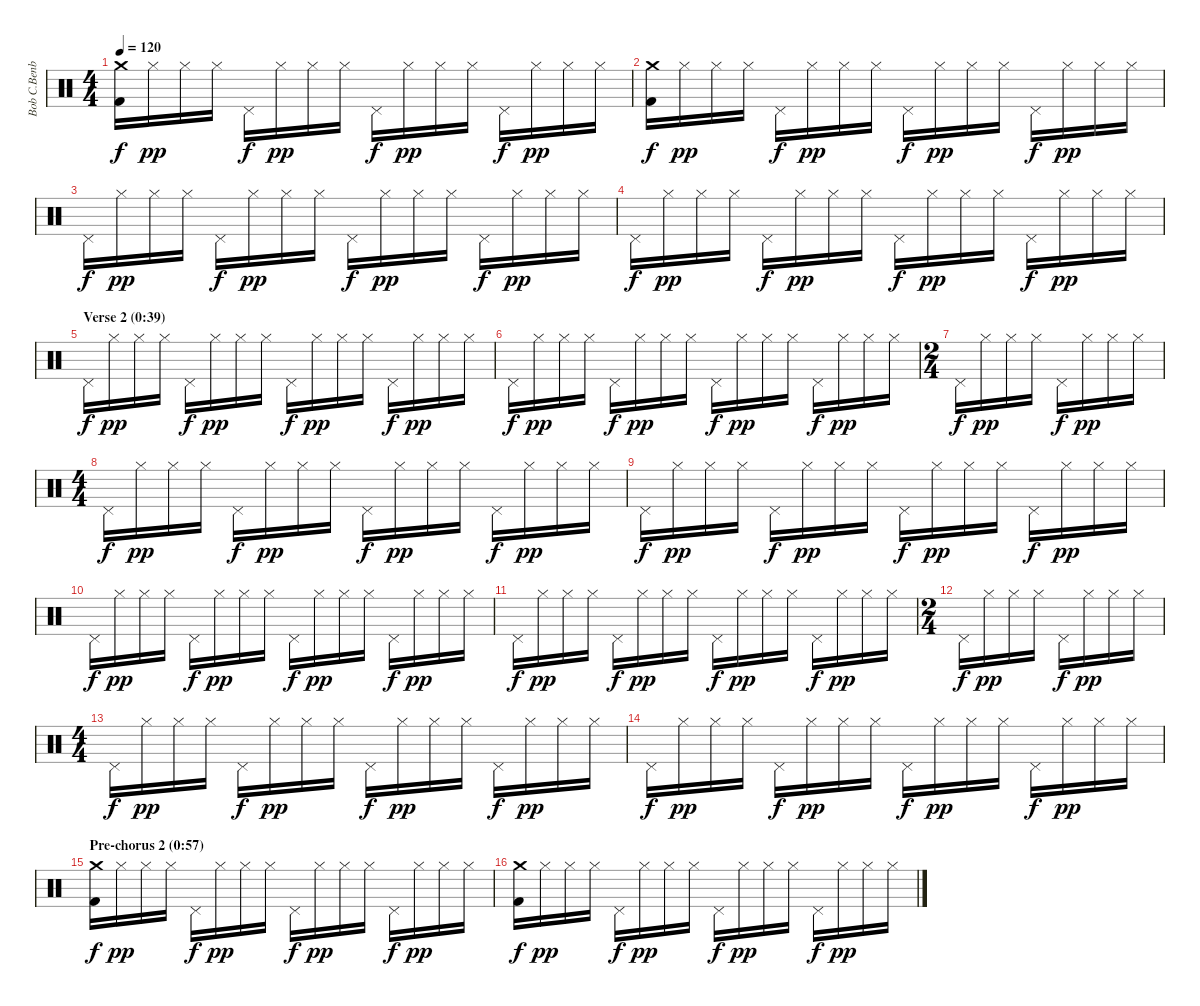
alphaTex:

\track ("Bob C.Benberg (drums)" "Bob C.Benb") {instrument percussion}
\staff {score}
\articulation defaults
\ts (4 4)
\tempo 120
\clef neutral
\ks c
("Crash medium (hit)" "Kick (hit) 2").16{dy f} "Hi-Hat (closed)".16{dy pp} "Hi-Hat (closed)".16 "Hi-Hat (closed)".16 "Pedal Hi-Hat (hit)".16{dy f} "Hi-Hat (closed)".16{dy pp} "Hi-Hat (closed)".16 "Hi-Hat (closed)".16 "Pedal Hi-Hat (hit)".16{dy f} "Hi-Hat (closed)".16{dy pp} "Hi-Hat (closed)".16 "Hi-Hat (closed)".16 "Pedal Hi-Hat (hit)".16{dy f} "Hi-Hat (closed)".16{dy pp} "Hi-Hat (closed)".16 "Hi-Hat (closed)".16 |
("Crash medium (hit)" "Kick (hit) 2").16{dy f} "Hi-Hat (closed)".16{dy pp} "Hi-Hat (closed)".16 "Hi-Hat (closed)".16 "Pedal Hi-Hat (hit)".16{dy f} "Hi-Hat (closed)".16{dy pp} "Hi-Hat (closed)".16 "Hi-Hat (closed)".16 "Pedal Hi-Hat (hit)".16{dy f} "Hi-Hat (closed)".16{dy pp} "Hi-Hat (closed)".16 "Hi-Hat (closed)".16 "Pedal Hi-Hat (hit)".16{dy f} "Hi-Hat (closed)".16{dy pp} "Hi-Hat (closed)".16 "Hi-Hat (closed)".16 |
"Pedal Hi-Hat (hit)".16{dy f} "Hi-Hat (closed)".16{dy pp} "Hi-Hat (closed)".16 "Hi-Hat (closed)".16 "Pedal Hi-Hat (hit)".16{dy f} "Hi-Hat (closed)".16{dy pp} "Hi-Hat (closed)".16 "Hi-Hat (closed)".16 "Pedal Hi-Hat (hit)".16{dy f} "Hi-Hat (closed)".16{dy pp} "Hi-Hat (closed)".16 "Hi-Hat (closed)".16 "Pedal Hi-Hat (hit)".16{dy f} "Hi-Hat (closed)".16{dy pp} "Hi-Hat (closed)".16 "Hi-Hat (closed)".16 |
"Pedal Hi-Hat (hit)".16{dy f} "Hi-Hat (closed)".16{dy pp} "Hi-Hat (closed)".16 "Hi-Hat (closed)".16 "Pedal Hi-Hat (hit)".16{dy f} "Hi-Hat (closed)".16{dy pp} "Hi-Hat (closed)".16 "Hi-Hat (closed)".16 "Pedal Hi-Hat (hit)".16{dy f} "Hi-Hat (closed)".16{dy pp} "Hi-Hat (closed)".16 "Hi-Hat (closed)".16 "Pedal Hi-Hat (hit)".16{dy f} "Hi-Hat (closed)".16{dy pp} "Hi-Hat (closed)".16 "Hi-Hat (closed)".16 |
\section ("" "Verse 2 (0:39)")
"Pedal Hi-Hat (hit)".16{dy f} "Hi-Hat (closed)".16{dy pp} "Hi-Hat (closed)".16 "Hi-Hat (closed)".16 "Pedal Hi-Hat (hit)".16{dy f} "Hi-Hat (closed)".16{dy pp} "Hi-Hat (closed)".16 "Hi-Hat (closed)".16 "Pedal Hi-Hat (hit)".16{dy f} "Hi-Hat (closed)".16{dy pp} "Hi-Hat (closed)".16 "Hi-Hat (closed)".16 "Pedal Hi-Hat (hit)".16{dy f} "Hi-Hat (closed)".16{dy pp} "Hi-Hat (closed)".16 "Hi-Hat (closed)".16 |
"Pedal Hi-Hat (hit)".16{dy f} "Hi-Hat (closed)".16{dy pp} "Hi-Hat (closed)".16 "Hi-Hat (closed)".16 "Pedal Hi-Hat (hit)".16{dy f} "Hi-Hat (closed)".16{dy pp} "Hi-Hat (closed)".16 "Hi-Hat (closed)".16 "Pedal Hi-Hat (hit)".16{dy f} "Hi-Hat (closed)".16{dy pp} "Hi-Hat (closed)".16 "Hi-Hat (closed)".16 "Pedal Hi-Hat (hit)".16{dy f} "Hi-Hat (closed)".16{dy pp} "Hi-Hat (closed)".16 "Hi-Hat (closed)".16 |
\ts (2 4)
"Pedal Hi-Hat (hit)".16{dy f} "Hi-Hat (closed)".16{dy pp} "Hi-Hat (closed)".16 "Hi-Hat (closed)".16 "Pedal Hi-Hat (hit)".16{dy f} "Hi-Hat (closed)".16{dy pp} "Hi-Hat (closed)".16 "Hi-Hat (closed)".16 |
\ts (4 4)
"Pedal Hi-Hat (hit)".16{dy f} "Hi-Hat (closed)".16{dy pp} "Hi-Hat (closed)".16 "Hi-Hat (closed)".16 "Pedal Hi-Hat (hit)".16{dy f} "Hi-Hat (closed)".16{dy pp} "Hi-Hat (closed)".16 "Hi-Hat (closed)".16 "Pedal Hi-Hat (hit)".16{dy f} "Hi-Hat (closed)".16{dy pp} "Hi-Hat (closed)".16 "Hi-Hat (closed)".16 "Pedal Hi-Hat (hit)".16{dy f} "Hi-Hat (closed)".16{dy pp} "Hi-Hat (closed)".16 "Hi-Hat (closed)".16 |
"Pedal Hi-Hat (hit)".16{dy f} "Hi-Hat (closed)".16{dy pp} "Hi-Hat (closed)".16 "Hi-Hat (closed)".16 "Pedal Hi-Hat (hit)".16{dy f} "Hi-Hat (closed)".16{dy pp} "Hi-Hat (closed)".16 "Hi-Hat (closed)".16 "Pedal Hi-Hat (hit)".16{dy f} "Hi-Hat (closed)".16{dy pp} "Hi-Hat (closed)".16 "Hi-Hat (closed)".16 "Pedal Hi-Hat (hit)".16{dy f} "Hi-Hat (closed)".16{dy pp} "Hi-Hat (closed)".16 "Hi-Hat (closed)".16 |
"Pedal Hi-Hat (hit)".16{dy f} "Hi-Hat (closed)".16{dy pp} "Hi-Hat (closed)".16 "Hi-Hat (closed)".16 "Pedal Hi-Hat (hit)".16{dy f} "Hi-Hat (closed)".16{dy pp} "Hi-Hat (closed)".16 "Hi-Hat (closed)".16 "Pedal Hi-Hat (hit)".16{dy f} "Hi-Hat (closed)".16{dy pp} "Hi-Hat (closed)".16 "Hi-Hat (closed)".16 "Pedal Hi-Hat (hit)".16{dy f} "Hi-Hat (closed)".16{dy pp} "Hi-Hat (closed)".16 "Hi-Hat (closed)".16 |
"Pedal Hi-Hat (hit)".16{dy f} "Hi-Hat (closed)".16{dy pp} "Hi-Hat (closed)".16 "Hi-Hat (closed)".16 "Pedal Hi-Hat (hit)".16{dy f} "Hi-Hat (closed)".16{dy pp} "Hi-Hat (closed)".16 "Hi-Hat (closed)".16 "Pedal Hi-Hat (hit)".16{dy f} "Hi-Hat (closed)".16{dy pp} "Hi-Hat (closed)".16 "Hi-Hat (closed)".16 "Pedal Hi-Hat (hit)".16{dy f} "Hi-Hat (closed)".16{dy pp} "Hi-Hat (closed)".16 "Hi-Hat (closed)".16 |
\ts (2 4)
"Pedal Hi-Hat (hit)".16{dy f} "Hi-Hat (closed)".16{dy pp} "Hi-Hat (closed)".16 "Hi-Hat (closed)".16 "Pedal Hi-Hat (hit)".16{dy f} "Hi-Hat (closed)".16{dy pp} "Hi-Hat (closed)".16 "Hi-Hat (closed)".16 |
\ts (4 4)
"Pedal Hi-Hat (hit)".16{dy f} "Hi-Hat (closed)".16{dy pp} "Hi-Hat (closed)".16 "Hi-Hat (closed)".16 "Pedal Hi-Hat (hit)".16{dy f} "Hi-Hat (closed)".16{dy pp} "Hi-Hat (closed)".16 "Hi-Hat (closed)".16 "Pedal Hi-Hat (hit)".16{dy f} "Hi-Hat (closed)".16{dy pp} "Hi-Hat (closed)".16 "Hi-Hat (closed)".16 "Pedal Hi-Hat (hit)".16{dy f} "Hi-Hat (closed)".16{dy pp} "Hi-Hat (closed)".16 "Hi-Hat (closed)".16 |
"Pedal Hi-Hat (hit)".16{dy f} "Hi-Hat (closed)".16{dy pp} "Hi-Hat (closed)".16 "Hi-Hat (closed)".16 "Pedal Hi-Hat (hit)".16{dy f} "Hi-Hat (closed)".16{dy pp} "Hi-Hat (closed)".16 "Hi-Hat (closed)".16 "Pedal Hi-Hat (hit)".16{dy f} "Hi-Hat (closed)".16{dy pp} "Hi-Hat (closed)".16 "Hi-Hat (closed)".16 "Pedal Hi-Hat (hit)".16{dy f} "Hi-Hat (closed)".16{dy pp} "Hi-Hat (closed)".16 "Hi-Hat (closed)".16 |
\section ("" "Pre-chorus 2 (0:57)")
("Crash medium (hit)" "Kick (hit) 2").16{dy f} "Hi-Hat (closed)".16{dy pp} "Hi-Hat (closed)".16 "Hi-Hat (closed)".16 "Pedal Hi-Hat (hit)".16{dy f} "Hi-Hat (closed)".16{dy pp} "Hi-Hat (closed)".16 "Hi-Hat (closed)".16 "Pedal Hi-Hat (hit)".16{dy f} "Hi-Hat (closed)".16{dy pp} "Hi-Hat (closed)".16 "Hi-Hat (closed)".16 "Pedal Hi-Hat (hit)".16{dy f} "Hi-Hat (closed)".16{dy pp} "Hi-Hat (closed)".16 "Hi-Hat (closed)".16 |
("Crash medium (hit)" "Kick (hit) 2").16{dy f} "Hi-Hat (closed)".16{dy pp} "Hi-Hat (closed)".16 "Hi-Hat (closed)".16 "Pedal Hi-Hat (hit)".16{dy f} "Hi-Hat (closed)".16{dy pp} "Hi-Hat (closed)".16 "Hi-Hat (closed)".16 "Pedal Hi-Hat (hit)".16{dy f} "Hi-Hat (closed)".16{dy pp} "Hi-Hat (closed)".16 "Hi-Hat (closed)".16 "Pedal Hi-Hat (hit)".16{dy f} "Hi-Hat (closed)".16{dy pp} "Hi-Hat (closed)".16 "Hi-Hat (closed)".16
